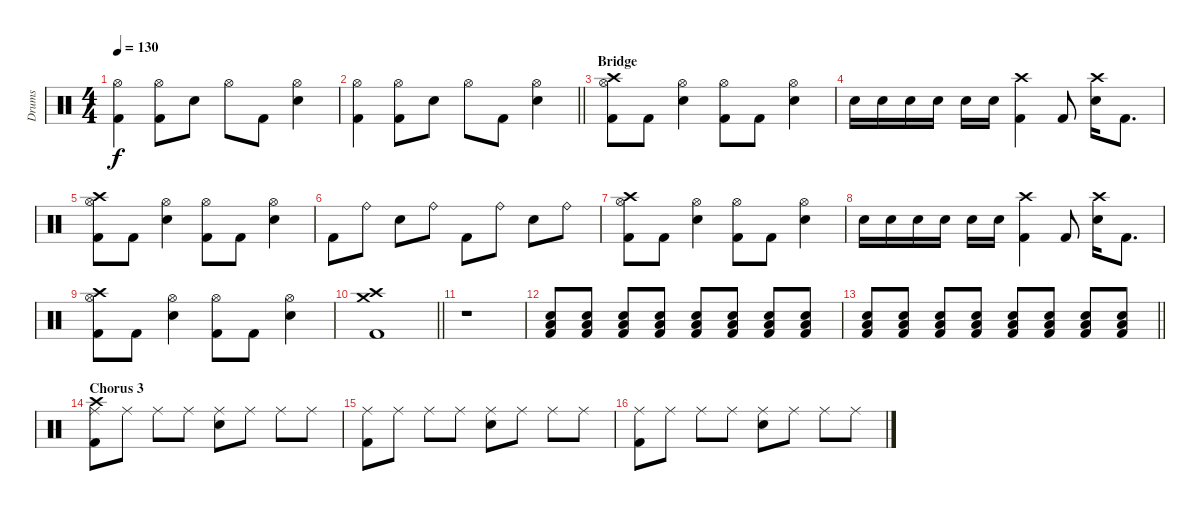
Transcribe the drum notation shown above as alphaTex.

\track ("Drums" "Drums") {instrument percussion}
\staff {score}
\articulation defaults
\ts (4 4)
\tempo 130
\clef neutral
\ks c
("Hi-Hat (open)" "Kick (hit) 2").4{dy f} ("Hi-Hat (open)" "Kick (hit) 2").8 "Snare (hit) 2".8 "Hi-Hat (open)".8 "Kick (hit) 2".8 ("Hi-Hat (open)" "Snare (hit) 2").4 |
\barLineRight lightlight
("Hi-Hat (open)" "Kick (hit) 2").4 ("Hi-Hat (open)" "Kick (hit) 2").8 "Snare (hit) 2".8 "Hi-Hat (open)".8 "Kick (hit) 2".8 ("Hi-Hat (open)" "Snare (hit) 2").4 |
\section ("" "Bridge")
("Hi-Hat (open)" "Crash high (hit)" "Kick (hit) 2").8 "Kick (hit) 2".8 ("Hi-Hat (open)" "Snare (hit) 2").4 ("Hi-Hat (open)" "Kick (hit) 2").8 "Kick (hit) 2".8 ("Hi-Hat (open)" "Snare (hit) 2").4 |
"Snare (hit) 2".16 "Snare (hit) 2".16 "Snare (hit) 2".16 "Snare (hit) 2".16 "Snare (hit) 2".16 "Snare (hit) 2".16 ("Crash high (hit)" "Kick (hit) 2").4 "Kick (hit) 2".8 ("Crash high (hit)" "Snare (hit) 2").16 "Kick (hit) 2".8{d} |
("Hi-Hat (open)" "Crash high (hit)" "Kick (hit) 2").8 "Kick (hit) 2".8 ("Hi-Hat (open)" "Snare (hit) 2").4 ("Hi-Hat (open)" "Kick (hit) 2").8 "Kick (hit) 2".8 ("Hi-Hat (open)" "Snare (hit) 2").4 |
"Kick (hit) 2".8 "Ride (bell)".8 "Snare (hit) 2".8 "Ride (bell)".8 "Kick (hit) 2".8 "Ride (bell)".8 "Snare (hit) 2".8 "Ride (bell)".8 |
("Hi-Hat (open)" "Crash high (hit)" "Kick (hit) 2").8 "Kick (hit) 2".8 ("Hi-Hat (open)" "Snare (hit) 2").4 ("Hi-Hat (open)" "Kick (hit) 2").8 "Kick (hit) 2".8 ("Hi-Hat (open)" "Snare (hit) 2").4 |
"Snare (hit) 2".16 "Snare (hit) 2".16 "Snare (hit) 2".16 "Snare (hit) 2".16 "Snare (hit) 2".16 "Snare (hit) 2".16 ("Crash high (hit)" "Kick (hit) 2").4 "Kick (hit) 2".8 ("Crash high (hit)" "Snare (hit) 2").16 "Kick (hit) 2".8{d} |
("Hi-Hat (open)" "Crash high (hit)" "Kick (hit) 2").8 "Kick (hit) 2".8 ("Hi-Hat (open)" "Snare (hit) 2").4 ("Hi-Hat (open)" "Kick (hit) 2").8 "Kick (hit) 2".8 ("Hi-Hat (open)" "Snare (hit) 2").4 |
\barLineRight lightlight
("Crash high (hit)" "Crash medium (hit)" "Kick (hit) 2").1 |
r.1 |
("Low Floor Tom (hit)" "Snare (hit) 2" "Kick (hit) 2").8 ("Low Floor Tom (hit)" "Snare (hit) 2" "Kick (hit) 2").8 ("Low Floor Tom (hit)" "Snare (hit) 2" "Kick (hit) 2").8 ("Low Floor Tom (hit)" "Snare (hit) 2" "Kick (hit) 2").8 ("Low Floor Tom (hit)" "Snare (hit) 2" "Kick (hit) 2").8 ("Low Floor Tom (hit)" "Snare (hit) 2" "Kick (hit) 2").8 ("Low Floor Tom (hit)" "Snare (hit) 2" "Kick (hit) 2").8 ("Low Floor Tom (hit)" "Snare (hit) 2" "Kick (hit) 2").8 |
\barLineRight lightlight
("Low Floor Tom (hit)" "Snare (hit) 2" "Kick (hit) 2").8 ("Low Floor Tom (hit)" "Snare (hit) 2" "Kick (hit) 2").8 ("Low Floor Tom (hit)" "Snare (hit) 2" "Kick (hit) 2").8 ("Low Floor Tom (hit)" "Snare (hit) 2" "Kick (hit) 2").8 ("Low Floor Tom (hit)" "Snare (hit) 2" "Kick (hit) 2").8 ("Low Floor Tom (hit)" "Snare (hit) 2" "Kick (hit) 2").8 ("Low Floor Tom (hit)" "Snare (hit) 2" "Kick (hit) 2").8 ("Low Floor Tom (hit)" "Snare (hit) 2" "Kick (hit) 2").8 |
\section ("" "Chorus 3")
("Ride (middle)" "Crash high (hit)" "Kick (hit) 2").8 "Ride (middle)".8 "Ride (middle)".8 "Ride (middle)".8 ("Ride (middle)" "Snare (hit) 2").8 "Ride (middle)".8 "Ride (middle)".8 "Ride (middle)".8 |
("Ride (middle)" "Kick (hit) 2").8 "Ride (middle)".8 "Ride (middle)".8 "Ride (middle)".8 ("Ride (middle)" "Snare (hit) 2").8 "Ride (middle)".8 "Ride (middle)".8 "Ride (middle)".8 |
("Ride (middle)" "Kick (hit) 2").8 "Ride (middle)".8 "Ride (middle)".8 "Ride (middle)".8 ("Ride (middle)" "Snare (hit) 2").8 "Ride (middle)".8 "Ride (middle)".8 "Ride (middle)".8
